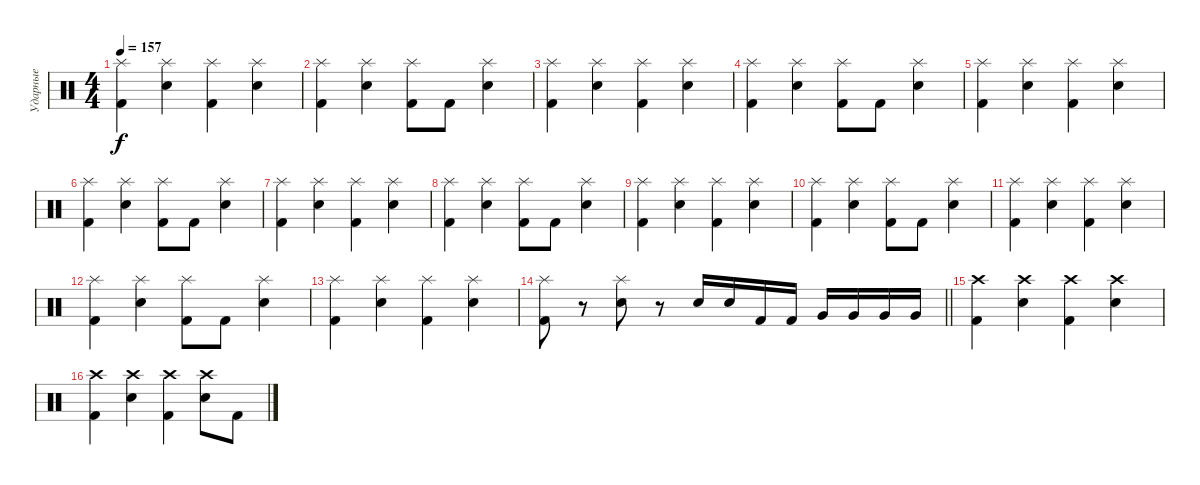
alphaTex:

\track ("Ударные" "Ударные") {instrument percussion}
\staff {score}
\articulation defaults
\ts (4 4)
\tempo 157
\clef neutral
\ks c
("Kick (hit) 2" "Splash (hit)").4{dy f} ("Electric Snare (hit)" "Splash (hit)").4 ("Kick (hit) 2" "Splash (hit)").4 ("Electric Snare (hit)" "Splash (hit)").4 |
("Kick (hit) 2" "Splash (hit)").4 ("Electric Snare (hit)" "Splash (hit)").4 ("Kick (hit) 2" "Splash (hit)").8 "Kick (hit) 2".8 ("Electric Snare (hit)" "Splash (hit)").4 |
("Kick (hit) 2" "Splash (hit)").4 ("Electric Snare (hit)" "Splash (hit)").4 ("Kick (hit) 2" "Splash (hit)").4 ("Electric Snare (hit)" "Splash (hit)").4 |
("Kick (hit) 2" "Splash (hit)").4 ("Electric Snare (hit)" "Splash (hit)").4 ("Kick (hit) 2" "Splash (hit)").8 "Kick (hit) 2".8 ("Electric Snare (hit)" "Splash (hit)").4 |
("Kick (hit) 2" "Splash (hit)").4 ("Electric Snare (hit)" "Splash (hit)").4 ("Kick (hit) 2" "Splash (hit)").4 ("Electric Snare (hit)" "Splash (hit)").4 |
("Kick (hit) 2" "Splash (hit)").4 ("Electric Snare (hit)" "Splash (hit)").4 ("Kick (hit) 2" "Splash (hit)").8 "Kick (hit) 2".8 ("Electric Snare (hit)" "Splash (hit)").4 |
("Kick (hit) 2" "Splash (hit)").4 ("Electric Snare (hit)" "Splash (hit)").4 ("Kick (hit) 2" "Splash (hit)").4 ("Electric Snare (hit)" "Splash (hit)").4 |
("Kick (hit) 2" "Splash (hit)").4 ("Electric Snare (hit)" "Splash (hit)").4 ("Kick (hit) 2" "Splash (hit)").8 "Kick (hit) 2".8 ("Electric Snare (hit)" "Splash (hit)").4 |
("Kick (hit) 2" "Splash (hit)").4 ("Electric Snare (hit)" "Splash (hit)").4 ("Kick (hit) 2" "Splash (hit)").4 ("Electric Snare (hit)" "Splash (hit)").4 |
("Kick (hit) 2" "Splash (hit)").4 ("Electric Snare (hit)" "Splash (hit)").4 ("Kick (hit) 2" "Splash (hit)").8 "Kick (hit) 2".8 ("Electric Snare (hit)" "Splash (hit)").4 |
("Kick (hit) 2" "Splash (hit)").4 ("Electric Snare (hit)" "Splash (hit)").4 ("Kick (hit) 2" "Splash (hit)").4 ("Electric Snare (hit)" "Splash (hit)").4 |
("Kick (hit) 2" "Splash (hit)").4 ("Electric Snare (hit)" "Splash (hit)").4 ("Kick (hit) 2" "Splash (hit)").8 "Kick (hit) 2".8 ("Electric Snare (hit)" "Splash (hit)").4 |
("Kick (hit) 2" "Splash (hit)").4 ("Electric Snare (hit)" "Splash (hit)").4 ("Kick (hit) 2" "Splash (hit)").4 ("Electric Snare (hit)" "Splash (hit)").4 |
\barLineRight lightlight
("Kick (hit) 2" "Splash (hit)").8 r.8 ("Snare (hit) 2" "Splash (hit)").8 r.8 "Electric Snare (hit)".16 "Electric Snare (hit)".16 "Kick (hit) 2".16 "Kick (hit) 2".16 "Very Low Tom (hit)".16 "Very Low Tom (hit)".16 "Very Low Tom (hit)".16 "Very Low Tom (hit)".16 |
\section ("" "")
("Kick (hit) 2" "Crash high (hit)").4 ("Electric Snare (hit)" "Crash high (hit)").4 ("Kick (hit) 2" "Crash high (hit)").4 ("Electric Snare (hit)" "Crash high (hit)").4 |
("Kick (hit) 2" "Crash high (hit)").4 ("Electric Snare (hit)" "Crash high (hit)").4 ("Kick (hit) 2" "Crash high (hit)").4 ("Electric Snare (hit)" "Crash high (hit)").8 "Kick (hit) 2".8
